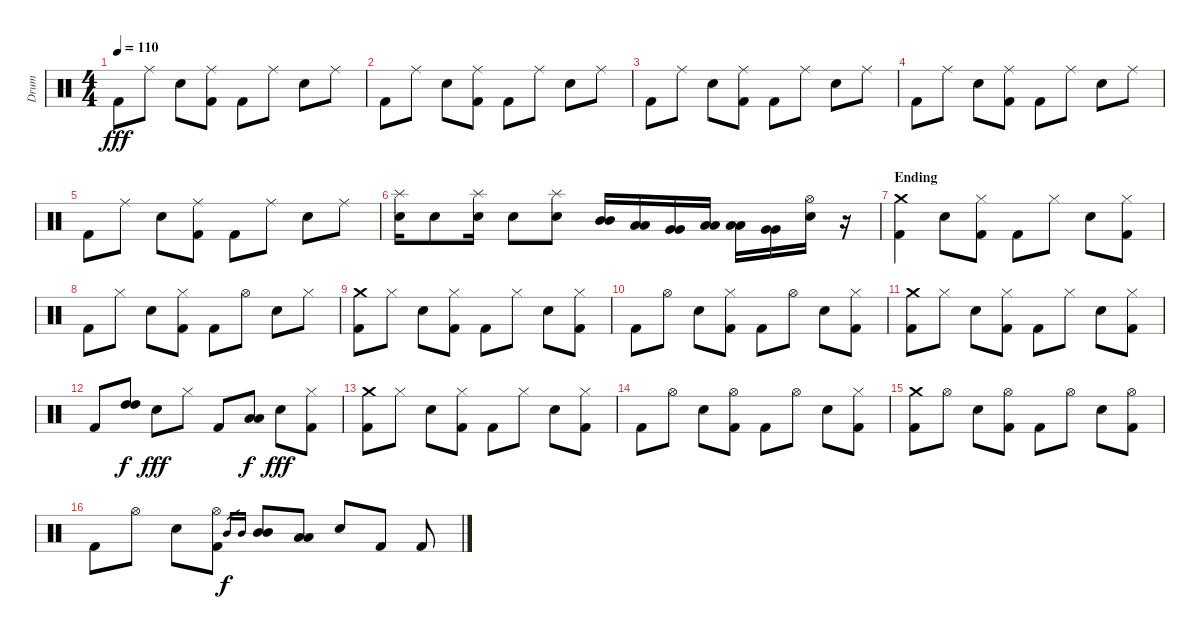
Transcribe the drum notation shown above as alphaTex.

\track ("Drum" "Drum") {instrument percussion}
\staff {score}
\articulation defaults
\ts (4 4)
\tempo 110
\clef neutral
\ks c "Kick (hit) 2".8{dy fff} "Ride (middle)".8 "Electric Snare (hit)".8
("Ride (middle)" "Kick (hit) 2").8 "Kick (hit) 2".8 "Ride (middle)".8 "Electric Snare (hit)".8 "Ride (middle)".8 |
"Kick (hit) 2".8 "Ride (middle)".8 "Electric Snare (hit)".8 ("Ride (middle)" "Kick (hit) 2").8 "Kick (hit) 2".8 "Ride (middle)".8 "Electric Snare (hit)".8 "Ride (middle)".8 |
"Kick (hit) 2".8 "Ride (middle)".8 "Electric Snare (hit)".8 ("Ride (middle)" "Kick (hit) 2").8 "Kick (hit) 2".8 "Ride (middle)".8 "Electric Snare (hit)".8 "Ride (middle)".8 |
"Kick (hit) 2".8 "Ride (middle)".8 "Electric Snare (hit)".8 ("Ride (middle)" "Kick (hit) 2").8 "Kick (hit) 2".8 "Ride (middle)".8 "Electric Snare (hit)".8 "Ride (middle)".8 |
"Kick (hit) 2".8 "Ride (middle)".8 "Electric Snare (hit)".8 ("Ride (middle)" "Kick (hit) 2").8 "Kick (hit) 2".8 "Ride (middle)".8 "Electric Snare (hit)".8 "Ride (middle)".8 |
("Splash (hit)" "Electric Snare (hit)").16 "Electric Snare (hit)".8 ("Splash (hit)" "Electric Snare (hit)").16 "Electric Snare (hit)".8 ("Splash (hit)" "Electric Snare (hit)").8 ("Mid Tom (hit)" "Mid Tom (hit)").16 ("Low Tom (hit)" "Low Tom (hit)").16 ("Very Low Tom (hit)" "Very Low Tom (hit)").16 ("Low Tom (hit)" "Low Tom (hit)").16 ("Low Floor Tom (hit)" "Low Floor Tom (hit)").16 ("Very Low Tom (hit)" "Very Low Tom (hit)").16 ("Hi-Hat (open)" "Electric Snare (hit)").16 r.16 |
\section ("" "Ending")
("Crash medium (hit)" "Kick (hit) 2").4 "Electric Snare (hit)".8 ("Hi-Hat (closed)" "Kick (hit) 2").8 "Kick (hit) 2".8 "Hi-Hat (closed)".8 "Electric Snare (hit)".8 ("Hi-Hat (closed)" "Kick (hit) 2").8 |
"Kick (hit) 2".8 "Hi-Hat (closed)".8 "Electric Snare (hit)".8 ("Hi-Hat (closed)" "Kick (hit) 2").8 "Kick (hit) 2".8 "Hi-Hat (open)".8 "Electric Snare (hit)".8 "Hi-Hat (closed)".8 |
("Crash medium (hit)" "Kick (hit) 2").8 "Hi-Hat (closed)".8 "Electric Snare (hit)".8 ("Hi-Hat (closed)" "Kick (hit) 2").8 "Kick (hit) 2".8 "Hi-Hat (closed)".8 "Electric Snare (hit)".8 ("Hi-Hat (closed)" "Kick (hit) 2").8 |
"Kick (hit) 2".8 "Hi-Hat (open)".8 "Electric Snare (hit)".8 ("Hi-Hat (closed)" "Kick (hit) 2").8 "Kick (hit) 2".8 "Hi-Hat (open)".8 "Electric Snare (hit)".8 ("Hi-Hat (closed)" "Kick (hit) 2").8 |
("Crash medium (hit)" "Kick (hit) 2").8 "Hi-Hat (closed)".8 "Electric Snare (hit)".8 ("Hi-Hat (closed)" "Kick (hit) 2").8 "Kick (hit) 2".8 "Hi-Hat (closed)".8 "Electric Snare (hit)".8 ("Hi-Hat (closed)" "Kick (hit) 2").8 |
"Kick (hit) 2".8 ("High Tom (hit)" "High Tom (hit)").8{dy f} "Electric Snare (hit)".8{dy fff} "Hi-Hat (closed)".8 "Kick (hit) 2".8 ("Low Tom (hit)" "Low Tom (hit)").8{dy f} "Electric Snare (hit)".8{dy fff} ("Hi-Hat (closed)" "Kick (hit) 2").8 |
("Crash medium (hit)" "Kick (hit) 2").8 "Hi-Hat (closed)".8 "Electric Snare (hit)".8 ("Hi-Hat (closed)" "Kick (hit) 2").8 "Kick (hit) 2".8 "Hi-Hat (closed)".8 "Electric Snare (hit)".8 ("Hi-Hat (closed)" "Kick (hit) 2").8 |
"Kick (hit) 2".8 "Hi-Hat (open)".8 "Electric Snare (hit)".8 ("Hi-Hat (open)" "Kick (hit) 2").8 "Kick (hit) 2".8 "Hi-Hat (open)".8 "Electric Snare (hit)".8 ("Hi-Hat (closed)" "Kick (hit) 2").8 |
("Crash medium (hit)" "Kick (hit) 2").8 "Hi-Hat (open)".8 "Electric Snare (hit)".8 ("Hi-Hat (open)" "Kick (hit) 2").8 "Kick (hit) 2".8 "Hi-Hat (open)".8 "Electric Snare (hit)".8 ("Hi-Hat (open)" "Kick (hit) 2").8 |
"Kick (hit) 2".8 "Hi-Hat (open)".8 "Electric Snare (hit)".8 ("Hi-Hat (open)" "Kick (hit) 2").8 "Mid Tom (hit)".16{gr dy f} "Mid Tom (hit)".16{gr} ("Mid Tom (hit)" "Mid Tom (hit)").8 ("Low Tom (hit)" "Low Tom (hit)").8 "Electric Snare (hit)".8 "Kick (hit) 2".8 "Kick (hit) 2".8
